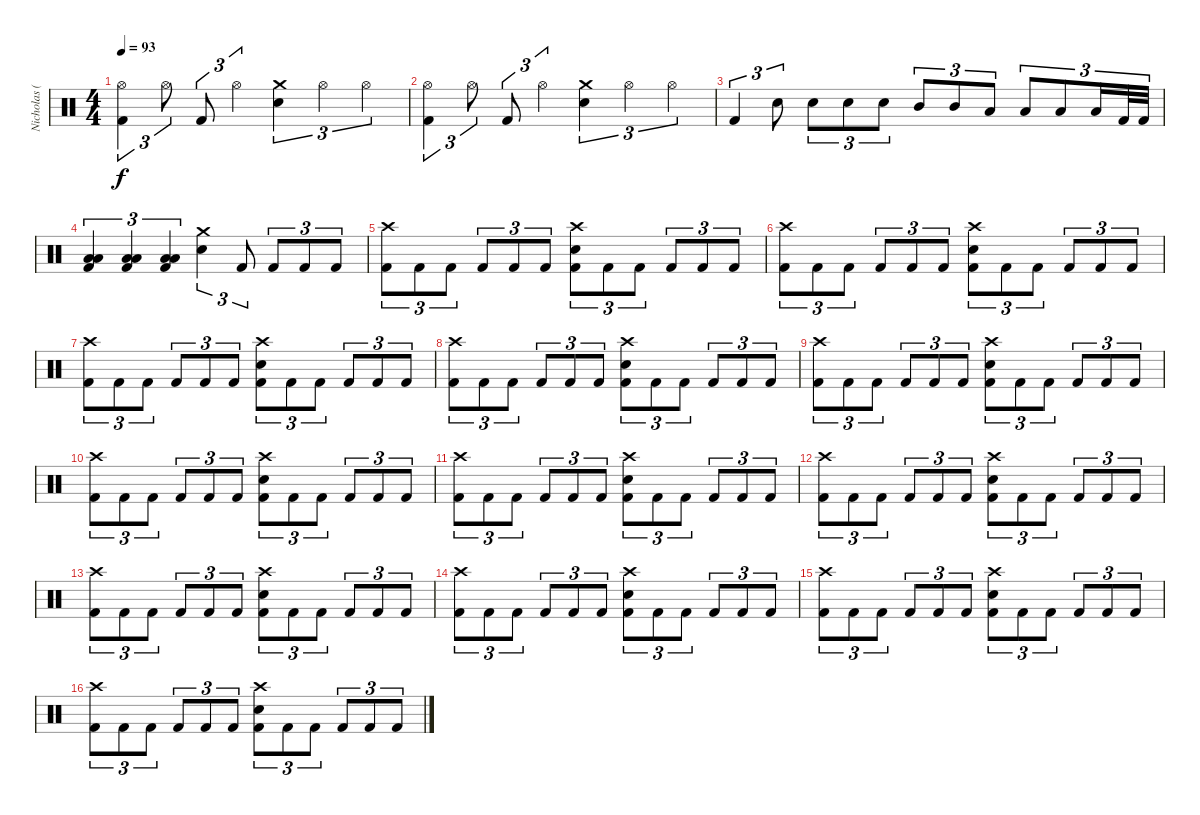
\track ("Nicholas (Drums)" "Nicholas (") {instrument percussion}
\staff {score}
\articulation defaults
\ts (4 4)
\tempo 93
\clef neutral
\ks c
("Hi-Hat (open)" "Kick (hit) 2").4{tu (3 2) dy f} "Hi-Hat (open)".8{tu (3 2)} "Kick (hit) 2".8{tu (3 2)} "Hi-Hat (open)".4{tu (3 2)} ("Crash medium (hit)" "Electric Snare (hit)").4{tu (3 2)} "Hi-Hat (open)".4{tu (3 2)} "Hi-Hat (open)".4{tu (3 2)} |
("Hi-Hat (open)" "Kick (hit) 2").4{tu (3 2)} "Hi-Hat (open)".8{tu (3 2)} "Kick (hit) 2".8{tu (3 2)} "Hi-Hat (open)".4{tu (3 2)} ("Crash medium (hit)" "Electric Snare (hit)").4{tu (3 2)} "Hi-Hat (open)".4{tu (3 2)} "Hi-Hat (open)".4{tu (3 2)} |
"Kick (hit) 2".4{tu (3 2)} "Electric Snare (hit)".8{tu (3 2)} "Electric Snare (hit)".8{tu (3 2)} "Electric Snare (hit)".8{tu (3 2)} "Electric Snare (hit)".8{tu (3 2)} "Mid Tom (hit)".8{tu (3 2)} "Mid Tom (hit)".8{tu (3 2)} "Low Tom (hit)".8{tu (3 2)} "Low Tom (hit)".8{tu (3 2)} "Low Floor Tom (hit)".8{tu (3 2)} "Low Floor Tom (hit)".16{tu (3 2)} "Kick (hit) 2".32{tu (3 2)} "Kick (hit) 2".32{tu (3 2)} |
("Low Tom (hit)" "Low Floor Tom (hit)" "Kick (hit) 2").4{tu (3 2)} ("Low Tom (hit)" "Low Floor Tom (hit)" "Kick (hit) 2").4{tu (3 2)} ("Low Tom (hit)" "Low Floor Tom (hit)" "Kick (hit) 2").4{tu (3 2)} ("Crash medium (hit)" "Electric Snare (hit)").4{tu (3 2)} "Kick (hit) 2".8{tu (3 2)} "Kick (hit) 2".8{tu (3 2)} "Kick (hit) 2".8{tu (3 2)} "Kick (hit) 2".8{tu (3 2)} |
("Crash high (hit)" "Kick (hit) 2").8{tu (3 2)} "Kick (hit) 2".8{tu (3 2)} "Kick (hit) 2".8{tu (3 2)} "Kick (hit) 2".8{tu (3 2)} "Kick (hit) 2".8{tu (3 2)} "Kick (hit) 2".8{tu (3 2)} ("Crash high (hit)" "Electric Snare (hit)" "Kick (hit) 2").8{tu (3 2)} "Kick (hit) 2".8{tu (3 2)} "Kick (hit) 2".8{tu (3 2)} "Kick (hit) 2".8{tu (3 2)} "Kick (hit) 2".8{tu (3 2)} "Kick (hit) 2".8{tu (3 2)} |
("Crash high (hit)" "Kick (hit) 2").8{tu (3 2)} "Kick (hit) 2".8{tu (3 2)} "Kick (hit) 2".8{tu (3 2)} "Kick (hit) 2".8{tu (3 2)} "Kick (hit) 2".8{tu (3 2)} "Kick (hit) 2".8{tu (3 2)} ("Crash high (hit)" "Electric Snare (hit)" "Kick (hit) 2").8{tu (3 2)} "Kick (hit) 2".8{tu (3 2)} "Kick (hit) 2".8{tu (3 2)} "Kick (hit) 2".8{tu (3 2)} "Kick (hit) 2".8{tu (3 2)} "Kick (hit) 2".8{tu (3 2)} |
("Crash high (hit)" "Kick (hit) 2").8{tu (3 2)} "Kick (hit) 2".8{tu (3 2)} "Kick (hit) 2".8{tu (3 2)} "Kick (hit) 2".8{tu (3 2)} "Kick (hit) 2".8{tu (3 2)} "Kick (hit) 2".8{tu (3 2)} ("Crash high (hit)" "Electric Snare (hit)" "Kick (hit) 2").8{tu (3 2)} "Kick (hit) 2".8{tu (3 2)} "Kick (hit) 2".8{tu (3 2)} "Kick (hit) 2".8{tu (3 2)} "Kick (hit) 2".8{tu (3 2)} "Kick (hit) 2".8{tu (3 2)} |
("Crash high (hit)" "Kick (hit) 2").8{tu (3 2)} "Kick (hit) 2".8{tu (3 2)} "Kick (hit) 2".8{tu (3 2)} "Kick (hit) 2".8{tu (3 2)} "Kick (hit) 2".8{tu (3 2)} "Kick (hit) 2".8{tu (3 2)} ("Crash high (hit)" "Electric Snare (hit)" "Kick (hit) 2").8{tu (3 2)} "Kick (hit) 2".8{tu (3 2)} "Kick (hit) 2".8{tu (3 2)} "Kick (hit) 2".8{tu (3 2)} "Kick (hit) 2".8{tu (3 2)} "Kick (hit) 2".8{tu (3 2)} |
("Crash high (hit)" "Kick (hit) 2").8{tu (3 2)} "Kick (hit) 2".8{tu (3 2)} "Kick (hit) 2".8{tu (3 2)} "Kick (hit) 2".8{tu (3 2)} "Kick (hit) 2".8{tu (3 2)} "Kick (hit) 2".8{tu (3 2)} ("Crash high (hit)" "Electric Snare (hit)" "Kick (hit) 2").8{tu (3 2)} "Kick (hit) 2".8{tu (3 2)} "Kick (hit) 2".8{tu (3 2)} "Kick (hit) 2".8{tu (3 2)} "Kick (hit) 2".8{tu (3 2)} "Kick (hit) 2".8{tu (3 2)} |
("Crash high (hit)" "Kick (hit) 2").8{tu (3 2)} "Kick (hit) 2".8{tu (3 2)} "Kick (hit) 2".8{tu (3 2)} "Kick (hit) 2".8{tu (3 2)} "Kick (hit) 2".8{tu (3 2)} "Kick (hit) 2".8{tu (3 2)} ("Crash high (hit)" "Electric Snare (hit)" "Kick (hit) 2").8{tu (3 2)} "Kick (hit) 2".8{tu (3 2)} "Kick (hit) 2".8{tu (3 2)} "Kick (hit) 2".8{tu (3 2)} "Kick (hit) 2".8{tu (3 2)} "Kick (hit) 2".8{tu (3 2)} |
("Crash high (hit)" "Kick (hit) 2").8{tu (3 2)} "Kick (hit) 2".8{tu (3 2)} "Kick (hit) 2".8{tu (3 2)} "Kick (hit) 2".8{tu (3 2)} "Kick (hit) 2".8{tu (3 2)} "Kick (hit) 2".8{tu (3 2)} ("Crash high (hit)" "Electric Snare (hit)" "Kick (hit) 2").8{tu (3 2)} "Kick (hit) 2".8{tu (3 2)} "Kick (hit) 2".8{tu (3 2)} "Kick (hit) 2".8{tu (3 2)} "Kick (hit) 2".8{tu (3 2)} "Kick (hit) 2".8{tu (3 2)} |
("Crash high (hit)" "Kick (hit) 2").8{tu (3 2)} "Kick (hit) 2".8{tu (3 2)} "Kick (hit) 2".8{tu (3 2)} "Kick (hit) 2".8{tu (3 2)} "Kick (hit) 2".8{tu (3 2)} "Kick (hit) 2".8{tu (3 2)} ("Crash high (hit)" "Electric Snare (hit)" "Kick (hit) 2").8{tu (3 2)} "Kick (hit) 2".8{tu (3 2)} "Kick (hit) 2".8{tu (3 2)} "Kick (hit) 2".8{tu (3 2)} "Kick (hit) 2".8{tu (3 2)} "Kick (hit) 2".8{tu (3 2)} |
("Crash high (hit)" "Kick (hit) 2").8{tu (3 2)} "Kick (hit) 2".8{tu (3 2)} "Kick (hit) 2".8{tu (3 2)} "Kick (hit) 2".8{tu (3 2)} "Kick (hit) 2".8{tu (3 2)} "Kick (hit) 2".8{tu (3 2)} ("Crash high (hit)" "Electric Snare (hit)" "Kick (hit) 2").8{tu (3 2)} "Kick (hit) 2".8{tu (3 2)} "Kick (hit) 2".8{tu (3 2)} "Kick (hit) 2".8{tu (3 2)} "Kick (hit) 2".8{tu (3 2)} "Kick (hit) 2".8{tu (3 2)} |
("Crash high (hit)" "Kick (hit) 2").8{tu (3 2)} "Kick (hit) 2".8{tu (3 2)} "Kick (hit) 2".8{tu (3 2)} "Kick (hit) 2".8{tu (3 2)} "Kick (hit) 2".8{tu (3 2)} "Kick (hit) 2".8{tu (3 2)} ("Crash high (hit)" "Electric Snare (hit)" "Kick (hit) 2").8{tu (3 2)} "Kick (hit) 2".8{tu (3 2)} "Kick (hit) 2".8{tu (3 2)} "Kick (hit) 2".8{tu (3 2)} "Kick (hit) 2".8{tu (3 2)} "Kick (hit) 2".8{tu (3 2)} |
("Crash high (hit)" "Kick (hit) 2").8{tu (3 2)} "Kick (hit) 2".8{tu (3 2)} "Kick (hit) 2".8{tu (3 2)} "Kick (hit) 2".8{tu (3 2)} "Kick (hit) 2".8{tu (3 2)} "Kick (hit) 2".8{tu (3 2)} ("Crash high (hit)" "Electric Snare (hit)" "Kick (hit) 2").8{tu (3 2)} "Kick (hit) 2".8{tu (3 2)} "Kick (hit) 2".8{tu (3 2)} "Kick (hit) 2".8{tu (3 2)} "Kick (hit) 2".8{tu (3 2)} "Kick (hit) 2".8{tu (3 2)} |
("Crash high (hit)" "Kick (hit) 2").8{tu (3 2)} "Kick (hit) 2".8{tu (3 2)} "Kick (hit) 2".8{tu (3 2)} "Kick (hit) 2".8{tu (3 2)} "Kick (hit) 2".8{tu (3 2)} "Kick (hit) 2".8{tu (3 2)} ("Crash high (hit)" "Electric Snare (hit)" "Kick (hit) 2").8{tu (3 2)} "Kick (hit) 2".8{tu (3 2)} "Kick (hit) 2".8{tu (3 2)} "Kick (hit) 2".8{tu (3 2)} "Kick (hit) 2".8{tu (3 2)} "Kick (hit) 2".8{tu (3 2)}
